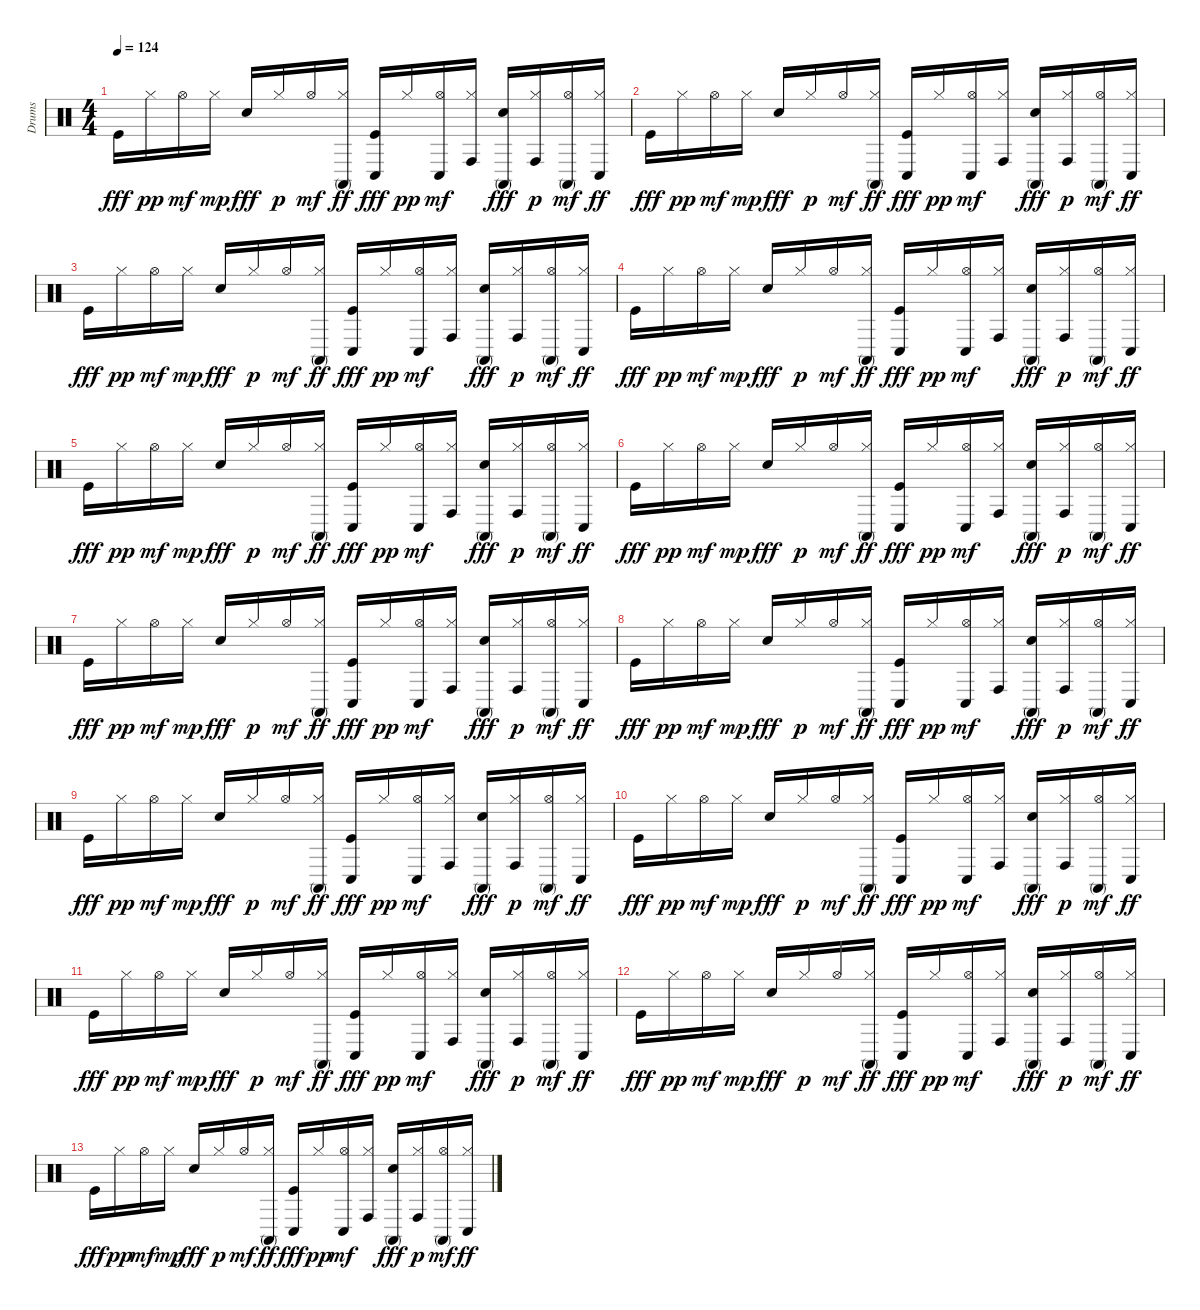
\track ("Drums" "Drums") {instrument percussion}
\staff {score}
\articulation defaults
\ts (4 4)
\tempo 124
\clef neutral
\ks c "Kick (hit)".16{dy fff} "Hi-Hat (closed)".16{dy pp} "Hi-Hat (open)".16{dy mf} "Hi-Hat (closed)".16{dy mp} "Electric Snare (hit)".16{dy fff} "Hi-Hat (closed)".16{dy p} "Hi-Hat (open)".16{dy mf}
("Conga high (mute)" "Hi-Hat (closed)").16{dy ff} ("Kick (hit)" "Conga low (hit)").16{dy fff} "Hi-Hat (closed)".16{dy pp} ("Conga low (hit)" "Hi-Hat (open)").16{dy mf} ("Conga high (hit)" "Hi-Hat (closed)").16 ("Electric Snare (hit)" "Conga high (mute)").16{dy fff} ("Conga high (hit)" "Hi-Hat (closed)").16{dy p} ("Conga high (mute)" "Hi-Hat (open)").16{dy mf} ("Conga low (hit)" "Hi-Hat (closed)").16{dy ff} |
"Kick (hit)".16{dy fff} "Hi-Hat (closed)".16{dy pp} "Hi-Hat (open)".16{dy mf} "Hi-Hat (closed)".16{dy mp} "Electric Snare (hit)".16{dy fff} "Hi-Hat (closed)".16{dy p} "Hi-Hat (open)".16{dy mf} ("Conga high (mute)" "Hi-Hat (closed)").16{dy ff} ("Kick (hit)" "Conga low (hit)").16{dy fff} "Hi-Hat (closed)".16{dy pp} ("Conga low (hit)" "Hi-Hat (open)").16{dy mf} ("Conga high (hit)" "Hi-Hat (closed)").16 ("Electric Snare (hit)" "Conga high (mute)").16{dy fff} ("Conga high (hit)" "Hi-Hat (closed)").16{dy p} ("Conga high (mute)" "Hi-Hat (open)").16{dy mf} ("Conga low (hit)" "Hi-Hat (closed)").16{dy ff} |
"Kick (hit)".16{dy fff} "Hi-Hat (closed)".16{dy pp} "Hi-Hat (open)".16{dy mf} "Hi-Hat (closed)".16{dy mp} "Electric Snare (hit)".16{dy fff} "Hi-Hat (closed)".16{dy p} "Hi-Hat (open)".16{dy mf} ("Conga high (mute)" "Hi-Hat (closed)").16{dy ff} ("Kick (hit)" "Conga low (hit)").16{dy fff} "Hi-Hat (closed)".16{dy pp} ("Conga low (hit)" "Hi-Hat (open)").16{dy mf} ("Conga high (hit)" "Hi-Hat (closed)").16 ("Electric Snare (hit)" "Conga high (mute)").16{dy fff} ("Conga high (hit)" "Hi-Hat (closed)").16{dy p} ("Conga high (mute)" "Hi-Hat (open)").16{dy mf} ("Conga low (hit)" "Hi-Hat (closed)").16{dy ff} |
"Kick (hit)".16{dy fff} "Hi-Hat (closed)".16{dy pp} "Hi-Hat (open)".16{dy mf} "Hi-Hat (closed)".16{dy mp} "Electric Snare (hit)".16{dy fff} "Hi-Hat (closed)".16{dy p} "Hi-Hat (open)".16{dy mf} ("Conga high (mute)" "Hi-Hat (closed)").16{dy ff} ("Kick (hit)" "Conga low (hit)").16{dy fff} "Hi-Hat (closed)".16{dy pp} ("Conga low (hit)" "Hi-Hat (open)").16{dy mf} ("Conga high (hit)" "Hi-Hat (closed)").16 ("Electric Snare (hit)" "Conga high (mute)").16{dy fff} ("Conga high (hit)" "Hi-Hat (closed)").16{dy p} ("Conga high (mute)" "Hi-Hat (open)").16{dy mf} ("Conga low (hit)" "Hi-Hat (closed)").16{dy ff} |
"Kick (hit)".16{dy fff} "Hi-Hat (closed)".16{dy pp} "Hi-Hat (open)".16{dy mf} "Hi-Hat (closed)".16{dy mp} "Electric Snare (hit)".16{dy fff} "Hi-Hat (closed)".16{dy p} "Hi-Hat (open)".16{dy mf} ("Conga high (mute)" "Hi-Hat (closed)").16{dy ff} ("Kick (hit)" "Conga low (hit)").16{dy fff} "Hi-Hat (closed)".16{dy pp} ("Conga low (hit)" "Hi-Hat (open)").16{dy mf} ("Conga high (hit)" "Hi-Hat (closed)").16 ("Electric Snare (hit)" "Conga high (mute)").16{dy fff} ("Conga high (hit)" "Hi-Hat (closed)").16{dy p} ("Conga high (mute)" "Hi-Hat (open)").16{dy mf} ("Conga low (hit)" "Hi-Hat (closed)").16{dy ff} |
"Kick (hit)".16{dy fff} "Hi-Hat (closed)".16{dy pp} "Hi-Hat (open)".16{dy mf} "Hi-Hat (closed)".16{dy mp} "Electric Snare (hit)".16{dy fff} "Hi-Hat (closed)".16{dy p} "Hi-Hat (open)".16{dy mf} ("Conga high (mute)" "Hi-Hat (closed)").16{dy ff} ("Kick (hit)" "Conga low (hit)").16{dy fff} "Hi-Hat (closed)".16{dy pp} ("Conga low (hit)" "Hi-Hat (open)").16{dy mf} ("Conga high (hit)" "Hi-Hat (closed)").16 ("Electric Snare (hit)" "Conga high (mute)").16{dy fff} ("Conga high (hit)" "Hi-Hat (closed)").16{dy p} ("Conga high (mute)" "Hi-Hat (open)").16{dy mf} ("Conga low (hit)" "Hi-Hat (closed)").16{dy ff} |
"Kick (hit)".16{dy fff} "Hi-Hat (closed)".16{dy pp} "Hi-Hat (open)".16{dy mf} "Hi-Hat (closed)".16{dy mp} "Electric Snare (hit)".16{dy fff} "Hi-Hat (closed)".16{dy p} "Hi-Hat (open)".16{dy mf} ("Conga high (mute)" "Hi-Hat (closed)").16{dy ff} ("Kick (hit)" "Conga low (hit)").16{dy fff} "Hi-Hat (closed)".16{dy pp} ("Conga low (hit)" "Hi-Hat (open)").16{dy mf} ("Conga high (hit)" "Hi-Hat (closed)").16 ("Electric Snare (hit)" "Conga high (mute)").16{dy fff} ("Conga high (hit)" "Hi-Hat (closed)").16{dy p} ("Conga high (mute)" "Hi-Hat (open)").16{dy mf} ("Conga low (hit)" "Hi-Hat (closed)").16{dy ff} |
"Kick (hit)".16{dy fff} "Hi-Hat (closed)".16{dy pp} "Hi-Hat (open)".16{dy mf} "Hi-Hat (closed)".16{dy mp} "Electric Snare (hit)".16{dy fff} "Hi-Hat (closed)".16{dy p} "Hi-Hat (open)".16{dy mf} ("Conga high (mute)" "Hi-Hat (closed)").16{dy ff} ("Kick (hit)" "Conga low (hit)").16{dy fff} "Hi-Hat (closed)".16{dy pp} ("Conga low (hit)" "Hi-Hat (open)").16{dy mf} ("Conga high (hit)" "Hi-Hat (closed)").16 ("Electric Snare (hit)" "Conga high (mute)").16{dy fff} ("Conga high (hit)" "Hi-Hat (closed)").16{dy p} ("Conga high (mute)" "Hi-Hat (open)").16{dy mf} ("Conga low (hit)" "Hi-Hat (closed)").16{dy ff} |
"Kick (hit)".16{dy fff} "Hi-Hat (closed)".16{dy pp} "Hi-Hat (open)".16{dy mf} "Hi-Hat (closed)".16{dy mp} "Electric Snare (hit)".16{dy fff} "Hi-Hat (closed)".16{dy p} "Hi-Hat (open)".16{dy mf} ("Conga high (mute)" "Hi-Hat (closed)").16{dy ff} ("Kick (hit)" "Conga low (hit)").16{dy fff} "Hi-Hat (closed)".16{dy pp} ("Conga low (hit)" "Hi-Hat (open)").16{dy mf} ("Conga high (hit)" "Hi-Hat (closed)").16 ("Electric Snare (hit)" "Conga high (mute)").16{dy fff} ("Conga high (hit)" "Hi-Hat (closed)").16{dy p} ("Conga high (mute)" "Hi-Hat (open)").16{dy mf} ("Conga low (hit)" "Hi-Hat (closed)").16{dy ff} |
"Kick (hit)".16{dy fff} "Hi-Hat (closed)".16{dy pp} "Hi-Hat (open)".16{dy mf} "Hi-Hat (closed)".16{dy mp} "Electric Snare (hit)".16{dy fff} "Hi-Hat (closed)".16{dy p} "Hi-Hat (open)".16{dy mf} ("Conga high (mute)" "Hi-Hat (closed)").16{dy ff} ("Kick (hit)" "Conga low (hit)").16{dy fff} "Hi-Hat (closed)".16{dy pp} ("Conga low (hit)" "Hi-Hat (open)").16{dy mf} ("Conga high (hit)" "Hi-Hat (closed)").16 ("Electric Snare (hit)" "Conga high (mute)").16{dy fff} ("Conga high (hit)" "Hi-Hat (closed)").16{dy p} ("Conga high (mute)" "Hi-Hat (open)").16{dy mf} ("Conga low (hit)" "Hi-Hat (closed)").16{dy ff} |
"Kick (hit)".16{dy fff} "Hi-Hat (closed)".16{dy pp} "Hi-Hat (open)".16{dy mf} "Hi-Hat (closed)".16{dy mp} "Electric Snare (hit)".16{dy fff} "Hi-Hat (closed)".16{dy p} "Hi-Hat (open)".16{dy mf} ("Conga high (mute)" "Hi-Hat (closed)").16{dy ff} ("Kick (hit)" "Conga low (hit)").16{dy fff} "Hi-Hat (closed)".16{dy pp} ("Conga low (hit)" "Hi-Hat (open)").16{dy mf} ("Conga high (hit)" "Hi-Hat (closed)").16 ("Electric Snare (hit)" "Conga high (mute)").16{dy fff} ("Conga high (hit)" "Hi-Hat (closed)").16{dy p} ("Conga high (mute)" "Hi-Hat (open)").16{dy mf} ("Conga low (hit)" "Hi-Hat (closed)").16{dy ff} |
"Kick (hit)".16{dy fff} "Hi-Hat (closed)".16{dy pp} "Hi-Hat (open)".16{dy mf} "Hi-Hat (closed)".16{dy mp} "Electric Snare (hit)".16{dy fff} "Hi-Hat (closed)".16{dy p} "Hi-Hat (open)".16{dy mf} ("Conga high (mute)" "Hi-Hat (closed)").16{dy ff} ("Kick (hit)" "Conga low (hit)").16{dy fff} "Hi-Hat (closed)".16{dy pp} ("Conga low (hit)" "Hi-Hat (open)").16{dy mf} ("Conga high (hit)" "Hi-Hat (closed)").16 ("Electric Snare (hit)" "Conga high (mute)").16{dy fff} ("Conga high (hit)" "Hi-Hat (closed)").16{dy p} ("Conga high (mute)" "Hi-Hat (open)").16{dy mf} ("Conga low (hit)" "Hi-Hat (closed)").16{dy ff} |
"Kick (hit)".16{dy fff} "Hi-Hat (closed)".16{dy pp} "Hi-Hat (open)".16{dy mf} "Hi-Hat (closed)".16{dy mp} "Electric Snare (hit)".16{dy fff} "Hi-Hat (closed)".16{dy p} "Hi-Hat (open)".16{dy mf} ("Conga high (mute)" "Hi-Hat (closed)").16{dy ff} ("Kick (hit)" "Conga low (hit)").16{dy fff} "Hi-Hat (closed)".16{dy pp} ("Conga low (hit)" "Hi-Hat (open)").16{dy mf} ("Conga high (hit)" "Hi-Hat (closed)").16 ("Electric Snare (hit)" "Conga high (mute)").16{dy fff} ("Conga high (hit)" "Hi-Hat (closed)").16{dy p} ("Conga high (mute)" "Hi-Hat (open)").16{dy mf} ("Conga low (hit)" "Hi-Hat (closed)").16{dy ff}
